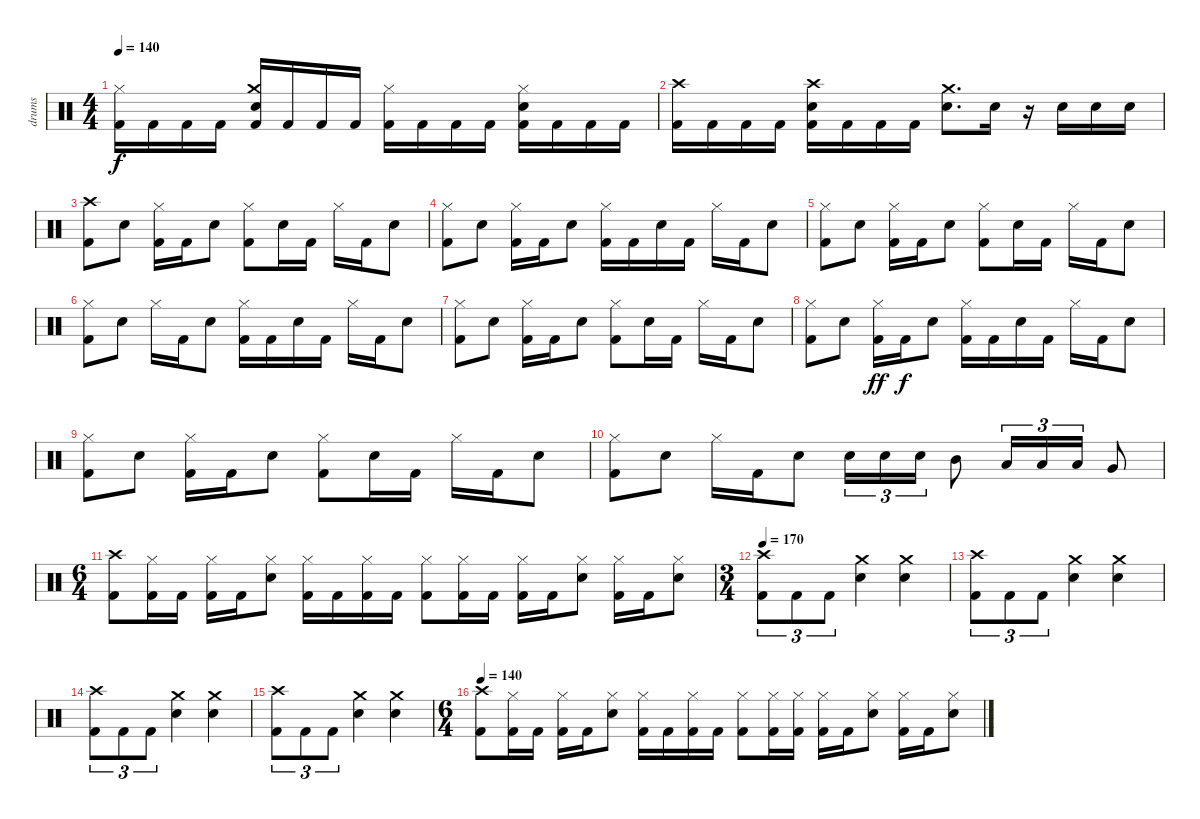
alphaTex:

\track ("drums" "drums") {instrument percussion}
\staff {score}
\articulation defaults
\ts (4 4)
\tempo 140
\clef neutral
\ks c
("Hi-Hat (closed)" "Kick (hit) 2").16{dy f} "Kick (hit) 2".16 "Kick (hit) 2".16 "Kick (hit) 2".16 ("Crash medium (hit)" "Electric Snare (hit)" "Kick (hit) 2").16 "Kick (hit) 2".16 "Kick (hit) 2".16 "Kick (hit) 2".16 ("Hi-Hat (closed)" "Kick (hit) 2").16 "Kick (hit) 2".16 "Kick (hit) 2".16 "Kick (hit) 2".16 ("Hi-Hat (closed)" "Electric Snare (hit)" "Kick (hit) 2").16 "Kick (hit) 2".16 "Kick (hit) 2".16 "Kick (hit) 2".16 |
("Crash high (hit)" "Kick (hit) 2").16 "Kick (hit) 2".16 "Kick (hit) 2".16 "Kick (hit) 2".16 ("Crash high (hit)" "Electric Snare (hit)" "Kick (hit) 2").16 "Kick (hit) 2".16 "Kick (hit) 2".16 "Kick (hit) 2".16 ("Crash medium (hit)" "Electric Snare (hit)").8{d} "Electric Snare (hit)".16 r.16 "Electric Snare (hit)".16 "Electric Snare (hit)".16 "Electric Snare (hit)".16 |
("Crash high (hit)" "Kick (hit) 2").8 "Electric Snare (hit)".8 ("Hi-Hat (closed)" "Kick (hit) 2").16 "Kick (hit) 2".16 "Electric Snare (hit)".8 ("Hi-Hat (closed)" "Kick (hit) 2").8 "Electric Snare (hit)".16 "Kick (hit) 2".16 "Hi-Hat (closed)".16 "Kick (hit) 2".16 "Electric Snare (hit)".8 |
("Hi-Hat (closed)" "Kick (hit) 2").8 "Electric Snare (hit)".8 ("Hi-Hat (closed)" "Kick (hit) 2").16 "Kick (hit) 2".16 "Electric Snare (hit)".8 ("Hi-Hat (closed)" "Kick (hit) 2").16 "Kick (hit) 2".16 "Electric Snare (hit)".16 "Kick (hit) 2".16 "Hi-Hat (closed)".16 "Kick (hit) 2".16 "Electric Snare (hit)".8 |
("Hi-Hat (closed)" "Kick (hit) 2").8 "Electric Snare (hit)".8 ("Hi-Hat (closed)" "Kick (hit) 2").16 "Kick (hit) 2".16 "Electric Snare (hit)".8 ("Hi-Hat (closed)" "Kick (hit) 2").8 "Electric Snare (hit)".16 "Kick (hit) 2".16 "Hi-Hat (closed)".16 "Kick (hit) 2".16 "Electric Snare (hit)".8 |
("Hi-Hat (closed)" "Kick (hit) 2").8 "Electric Snare (hit)".8 "Hi-Hat (closed)".16 "Kick (hit) 2".16 "Electric Snare (hit)".8 ("Hi-Hat (closed)" "Kick (hit) 2").16 "Kick (hit) 2".16 "Electric Snare (hit)".16 "Kick (hit) 2".16 "Hi-Hat (closed)".16 "Kick (hit) 2".16 "Electric Snare (hit)".8 |
("Hi-Hat (closed)" "Kick (hit) 2").8 "Electric Snare (hit)".8 ("Hi-Hat (closed)" "Kick (hit) 2").16 "Kick (hit) 2".16 "Electric Snare (hit)".8 ("Hi-Hat (closed)" "Kick (hit) 2").8 "Electric Snare (hit)".16 "Kick (hit) 2".16 "Hi-Hat (closed)".16 "Kick (hit) 2".16 "Electric Snare (hit)".8 |
("Hi-Hat (closed)" "Kick (hit) 2").8 "Electric Snare (hit)".8 ("Hi-Hat (closed)" "Kick (hit) 2").16{dy ff} "Kick (hit) 2".16{dy f} "Electric Snare (hit)".8 ("Hi-Hat (closed)" "Kick (hit) 2").16 "Kick (hit) 2".16 "Electric Snare (hit)".16 "Kick (hit) 2".16 "Hi-Hat (closed)".16 "Kick (hit) 2".16 "Electric Snare (hit)".8 |
("Hi-Hat (closed)" "Kick (hit) 2").8 "Electric Snare (hit)".8 ("Hi-Hat (closed)" "Kick (hit) 2").16 "Kick (hit) 2".16 "Electric Snare (hit)".8 ("Hi-Hat (closed)" "Kick (hit) 2").8 "Electric Snare (hit)".16 "Kick (hit) 2".16 "Hi-Hat (closed)".16 "Kick (hit) 2".16 "Electric Snare (hit)".8 |
("Hi-Hat (closed)" "Kick (hit) 2").8 "Electric Snare (hit)".8 "Hi-Hat (closed)".16 "Kick (hit) 2".16 "Electric Snare (hit)".8 "Electric Snare (hit)".16{tu (3 2)} "Electric Snare (hit)".16{tu (3 2)} "Electric Snare (hit)".16{tu (3 2)} "Mid Tom (hit)".8 "Low Tom (hit)".16{tu (3 2)} "Low Tom (hit)".16{tu (3 2)} "Low Tom (hit)".16{tu (3 2)} "Very Low Tom (hit)".8 |
\ts (6 4)
("Crash high (hit)" "Kick (hit) 2").8 ("Hi-Hat (closed)" "Kick (hit) 2").16 "Kick (hit) 2".16 ("Hi-Hat (closed)" "Kick (hit) 2").16 "Kick (hit) 2".16 ("Hi-Hat (closed)" "Electric Snare (hit)").8 ("Hi-Hat (closed)" "Kick (hit) 2").16 "Kick (hit) 2".16 ("Hi-Hat (closed)" "Kick (hit) 2").16 "Kick (hit) 2".16 ("Hi-Hat (closed)" "Kick (hit) 2").8 ("Hi-Hat (closed)" "Kick (hit) 2").16 "Kick (hit) 2".16 ("Hi-Hat (closed)" "Kick (hit) 2").16 "Kick (hit) 2".16 ("Hi-Hat (closed)" "Electric Snare (hit)").8 ("Hi-Hat (closed)" "Kick (hit) 2").16 "Kick (hit) 2".16 ("Hi-Hat (closed)" "Electric Snare (hit)").8 |
\ts (3 4)
\tempo 170
("Crash high (hit)" "Kick (hit) 2").8{tu (3 2)} "Kick (hit) 2".8{tu (3 2)} "Kick (hit) 2".8{tu (3 2)} ("Crash medium (hit)" "Electric Snare (hit)").4 ("Crash medium (hit)" "Electric Snare (hit)").4 |
("Crash high (hit)" "Kick (hit) 2").8{tu (3 2)} "Kick (hit) 2".8{tu (3 2)} "Kick (hit) 2".8{tu (3 2)} ("Crash medium (hit)" "Electric Snare (hit)").4 ("Crash medium (hit)" "Electric Snare (hit)").4 |
("Crash high (hit)" "Kick (hit) 2").8{tu (3 2)} "Kick (hit) 2".8{tu (3 2)} "Kick (hit) 2".8{tu (3 2)} ("Crash medium (hit)" "Electric Snare (hit)").4 ("Crash medium (hit)" "Electric Snare (hit)").4 |
("Crash high (hit)" "Kick (hit) 2").8{tu (3 2)} "Kick (hit) 2".8{tu (3 2)} "Kick (hit) 2".8{tu (3 2)} ("Crash medium (hit)" "Electric Snare (hit)").4 ("Crash medium (hit)" "Electric Snare (hit)").4 |
\ts (6 4)
\tempo 140
("Crash high (hit)" "Kick (hit) 2").8 ("Hi-Hat (closed)" "Kick (hit) 2").16 "Kick (hit) 2".16 ("Hi-Hat (closed)" "Kick (hit) 2").16 "Kick (hit) 2".16 ("Hi-Hat (closed)" "Electric Snare (hit)").8 ("Hi-Hat (closed)" "Kick (hit) 2").16 "Kick (hit) 2".16 ("Hi-Hat (closed)" "Kick (hit) 2").16 "Kick (hit) 2".16 ("Hi-Hat (closed)" "Kick (hit) 2").8 ("Hi-Hat (closed)" "Kick (hit) 2").16 ("Hi-Hat (closed)" "Kick (hit) 2").16 ("Hi-Hat (closed)" "Kick (hit) 2").16 "Kick (hit) 2".16 ("Hi-Hat (closed)" "Electric Snare (hit)").8 ("Hi-Hat (closed)" "Kick (hit) 2").16 "Kick (hit) 2".16 ("Hi-Hat (closed)" "Electric Snare (hit)").8
